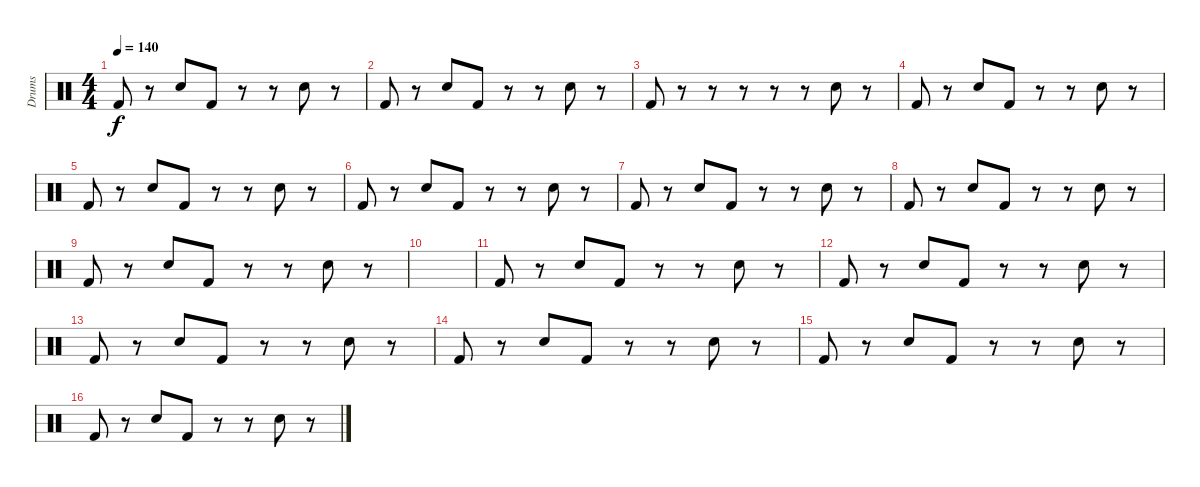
\track ("Drums" "Drums") {instrument percussion}
\staff {score}
\articulation defaults
\ts (4 4)
\tempo 140
\clef neutral
\ks c "Kick (hit) 2".8{dy f}
r.8 "Electric Snare (hit)".8 "Kick (hit) 2".8 r.8 r.8 "Electric Snare (hit)".8 r.8 |
"Kick (hit) 2".8 r.8 "Electric Snare (hit)".8 "Kick (hit) 2".8 r.8 r.8 "Electric Snare (hit)".8 r.8 |
"Kick (hit) 2".8 r.8 r.8 r.8 r.8 r.8 "Electric Snare (hit)".8 r.8 |
"Kick (hit) 2".8 r.8 "Electric Snare (hit)".8 "Kick (hit) 2".8 r.8 r.8 "Electric Snare (hit)".8 r.8 |
"Kick (hit) 2".8 r.8 "Electric Snare (hit)".8 "Kick (hit) 2".8 r.8 r.8 "Electric Snare (hit)".8 r.8 |
"Kick (hit) 2".8 r.8 "Electric Snare (hit)".8 "Kick (hit) 2".8 r.8 r.8 "Electric Snare (hit)".8 r.8 |
"Kick (hit) 2".8 r.8 "Electric Snare (hit)".8 "Kick (hit) 2".8 r.8 r.8 "Electric Snare (hit)".8 r.8 |
"Kick (hit) 2".8 r.8 "Electric Snare (hit)".8 "Kick (hit) 2".8 r.8 r.8 "Electric Snare (hit)".8 r.8 |
"Kick (hit) 2".8 r.8 "Electric Snare (hit)".8 "Kick (hit) 2".8 r.8 r.8 "Electric Snare (hit)".8 r.8 |
|
"Kick (hit) 2".8 r.8 "Electric Snare (hit)".8 "Kick (hit) 2".8 r.8 r.8 "Electric Snare (hit)".8 r.8 |
"Kick (hit) 2".8 r.8 "Electric Snare (hit)".8 "Kick (hit) 2".8 r.8 r.8 "Electric Snare (hit)".8 r.8 |
"Kick (hit) 2".8 r.8 "Electric Snare (hit)".8 "Kick (hit) 2".8 r.8 r.8 "Electric Snare (hit)".8 r.8 |
"Kick (hit) 2".8 r.8 "Electric Snare (hit)".8 "Kick (hit) 2".8 r.8 r.8 "Electric Snare (hit)".8 r.8 |
"Kick (hit) 2".8 r.8 "Electric Snare (hit)".8 "Kick (hit) 2".8 r.8 r.8 "Electric Snare (hit)".8 r.8 |
"Kick (hit) 2".8 r.8 "Electric Snare (hit)".8 "Kick (hit) 2".8 r.8 r.8 "Electric Snare (hit)".8 r.8
